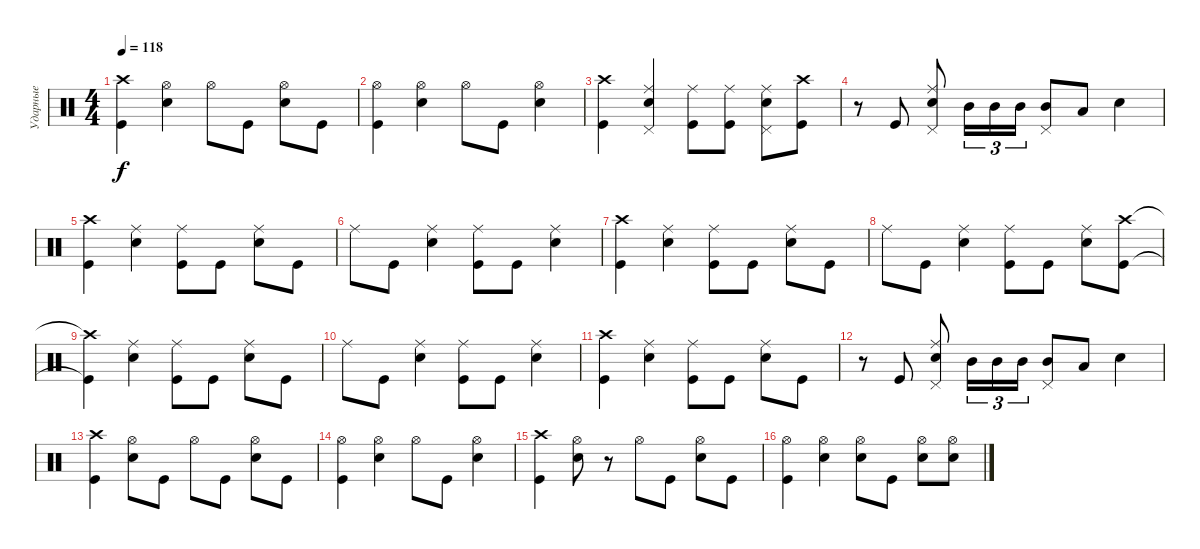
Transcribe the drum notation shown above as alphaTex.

\track ("Ударные" "Ударные") {instrument percussion}
\staff {score}
\articulation defaults
\ts (4 4)
\tempo 118
\clef neutral
\ks c
("Crash high (hit)" "Kick (hit)").4{dy f} ("Hi-Hat (open)" "Snare (hit) 2").4 "Hi-Hat (open)".8 "Kick (hit)".8 ("Hi-Hat (open)" "Snare (hit) 2").8 "Kick (hit)".8 |
("Hi-Hat (open)" "Kick (hit)").4 ("Hi-Hat (open)" "Snare (hit) 2").4 "Hi-Hat (open)".8 "Kick (hit)".8 ("Hi-Hat (open)" "Snare (hit) 2").4 |
("Crash high (hit)" "Kick (hit)").4 ("Ride (middle)" "Snare (hit) 2" "Pedal Hi-Hat (hit)").4 ("Ride (middle)" "Kick (hit)").8 ("Ride (middle)" "Kick (hit)").8 ("Ride (middle)" "Snare (hit) 2" "Pedal Hi-Hat (hit)").8 ("Crash high (hit)" "Kick (hit)").8 |
r.8 "Kick (hit)".8 ("Ride (middle)" "Snare (hit) 2" "Pedal Hi-Hat (hit)").8 "Mid Tom (hit)".16{tu (3 2)} "Mid Tom (hit)".16{tu (3 2)} "Mid Tom (hit)".16{tu (3 2)} ("Mid Tom (hit)" "Pedal Hi-Hat (hit)").8 "Low Tom (hit)".8 "Snare (hit) 2".4 |
("Crash high (hit)" "Kick (hit)").4 ("Ride (middle)" "Snare (hit) 2").4 ("Ride (middle)" "Kick (hit)").8 "Kick (hit)".8 ("Ride (middle)" "Snare (hit) 2").8 "Kick (hit)".8 |
"Ride (middle)".8 "Kick (hit)".8 ("Ride (middle)" "Snare (hit) 2").4 ("Ride (middle)" "Kick (hit)").8 "Kick (hit)".8 ("Ride (middle)" "Snare (hit) 2").4 |
("Crash high (hit)" "Kick (hit)").4 ("Ride (middle)" "Snare (hit) 2").4 ("Ride (middle)" "Kick (hit)").8 "Kick (hit)".8 ("Ride (middle)" "Snare (hit) 2").8 "Kick (hit)".8 |
"Ride (middle)".8 "Kick (hit)".8 ("Ride (middle)" "Snare (hit) 2").4 ("Ride (middle)" "Kick (hit)").8 "Kick (hit)".8 ("Ride (middle)" "Snare (hit) 2").8 ("Crash high (hit)" "Kick (hit)").8 |
("Crash high (hit)"{t} "Kick (hit)"{t}).4 ("Ride (middle)" "Snare (hit) 2").4 ("Ride (middle)" "Kick (hit)").8 "Kick (hit)".8 ("Ride (middle)" "Snare (hit) 2").8 "Kick (hit)".8 |
"Ride (middle)".8 "Kick (hit)".8 ("Ride (middle)" "Snare (hit) 2").4 ("Ride (middle)" "Kick (hit)").8 "Kick (hit)".8 ("Ride (middle)" "Snare (hit) 2").4 |
("Crash high (hit)" "Kick (hit)").4 ("Ride (middle)" "Snare (hit) 2").4 ("Ride (middle)" "Kick (hit)").8 "Kick (hit)".8 ("Ride (middle)" "Snare (hit) 2").8 "Kick (hit)".8 |
r.8 "Kick (hit)".8 ("Ride (middle)" "Snare (hit) 2" "Pedal Hi-Hat (hit)").8 "Mid Tom (hit)".16{tu (3 2)} "Mid Tom (hit)".16{tu (3 2)} "Mid Tom (hit)".16{tu (3 2)} ("Mid Tom (hit)" "Pedal Hi-Hat (hit)").8 "Low Tom (hit)".8 "Snare (hit) 2".4 |
("Crash high (hit)" "Kick (hit)").4 ("Hi-Hat (open)" "Snare (hit) 2").8 "Kick (hit)".8 "Hi-Hat (open)".8 "Kick (hit)".8 ("Hi-Hat (open)" "Snare (hit) 2").8 "Kick (hit)".8 |
("Hi-Hat (open)" "Kick (hit)").4 ("Hi-Hat (open)" "Snare (hit) 2").4 "Hi-Hat (open)".8 "Kick (hit)".8 ("Hi-Hat (open)" "Snare (hit) 2").4 |
("Crash high (hit)" "Kick (hit)").4 ("Hi-Hat (open)" "Snare (hit) 2").8 r.8 "Hi-Hat (open)".8 "Kick (hit)".8 ("Hi-Hat (open)" "Snare (hit) 2").8 "Kick (hit)".8 |
("Hi-Hat (open)" "Kick (hit)").4 ("Hi-Hat (open)" "Snare (hit) 2").4 ("Hi-Hat (open)" "Snare (hit) 2").8 "Kick (hit)".8 ("Hi-Hat (open)" "Snare (hit) 2").8 ("Hi-Hat (open)" "Snare (hit) 2").8
